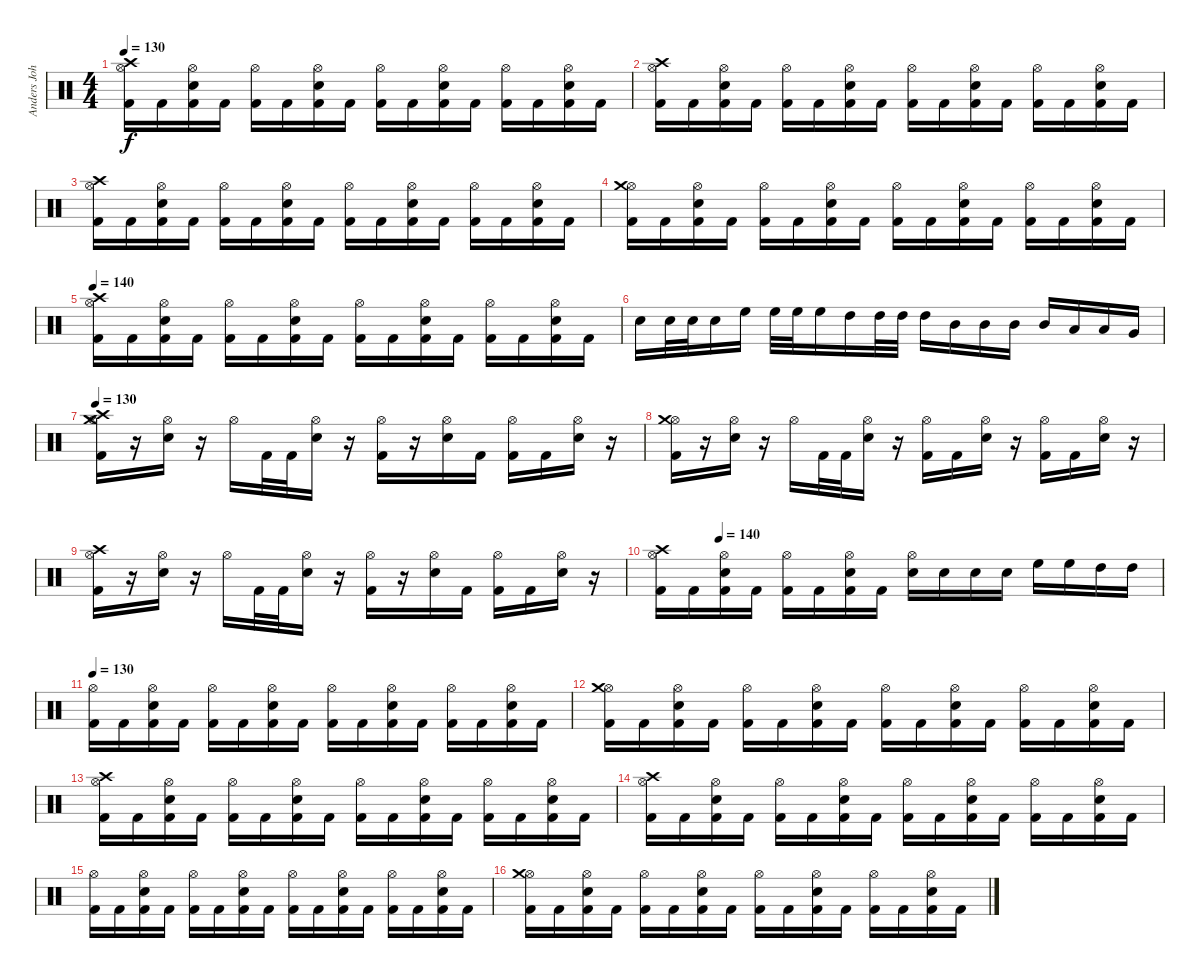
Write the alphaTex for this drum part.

\track ("Anders Johansson - Drums" "Anders Joh") {instrument percussion}
\staff {score}
\articulation defaults
\ts (4 4)
\tempo 130
\clef neutral
\ks c
("Hi-Hat (open)" "Kick (hit) 2" "Crash high (hit)").16{dy f} "Kick (hit) 2".16 ("Hi-Hat (open)" "Kick (hit) 2" "Electric Snare (hit)").16 "Kick (hit) 2".16 ("Hi-Hat (open)" "Kick (hit) 2").16 "Kick (hit) 2".16 ("Hi-Hat (open)" "Kick (hit) 2" "Electric Snare (hit)").16 "Kick (hit) 2".16 ("Hi-Hat (open)" "Kick (hit) 2").16 "Kick (hit) 2".16 ("Hi-Hat (open)" "Kick (hit) 2" "Electric Snare (hit)").16 "Kick (hit) 2".16 ("Hi-Hat (open)" "Kick (hit) 2").16 "Kick (hit) 2".16 ("Hi-Hat (open)" "Kick (hit) 2" "Electric Snare (hit)").16 "Kick (hit) 2".16 |
("Hi-Hat (open)" "Kick (hit) 2" "Crash high (hit)").16 "Kick (hit) 2".16 ("Hi-Hat (open)" "Kick (hit) 2" "Electric Snare (hit)").16 "Kick (hit) 2".16 ("Hi-Hat (open)" "Kick (hit) 2").16 "Kick (hit) 2".16 ("Hi-Hat (open)" "Kick (hit) 2" "Electric Snare (hit)").16 "Kick (hit) 2".16 ("Hi-Hat (open)" "Kick (hit) 2").16 "Kick (hit) 2".16 ("Hi-Hat (open)" "Kick (hit) 2" "Electric Snare (hit)").16 "Kick (hit) 2".16 ("Hi-Hat (open)" "Kick (hit) 2").16 "Kick (hit) 2".16 ("Hi-Hat (open)" "Kick (hit) 2" "Electric Snare (hit)").16 "Kick (hit) 2".16 |
("Hi-Hat (open)" "Kick (hit) 2" "Crash high (hit)").16 "Kick (hit) 2".16 ("Hi-Hat (open)" "Kick (hit) 2" "Electric Snare (hit)").16 "Kick (hit) 2".16 ("Hi-Hat (open)" "Kick (hit) 2").16 "Kick (hit) 2".16 ("Hi-Hat (open)" "Kick (hit) 2" "Electric Snare (hit)").16 "Kick (hit) 2".16 ("Hi-Hat (open)" "Kick (hit) 2").16 "Kick (hit) 2".16 ("Hi-Hat (open)" "Kick (hit) 2" "Electric Snare (hit)").16 "Kick (hit) 2".16 ("Hi-Hat (open)" "Kick (hit) 2").16 "Kick (hit) 2".16 ("Hi-Hat (open)" "Kick (hit) 2" "Electric Snare (hit)").16 "Kick (hit) 2".16 |
("Hi-Hat (open)" "Kick (hit) 2" "Crash medium (hit)").16 "Kick (hit) 2".16 ("Hi-Hat (open)" "Kick (hit) 2" "Electric Snare (hit)").16 "Kick (hit) 2".16 ("Hi-Hat (open)" "Kick (hit) 2").16 "Kick (hit) 2".16 ("Hi-Hat (open)" "Kick (hit) 2" "Electric Snare (hit)").16 "Kick (hit) 2".16 ("Hi-Hat (open)" "Kick (hit) 2").16 "Kick (hit) 2".16 ("Hi-Hat (open)" "Kick (hit) 2" "Electric Snare (hit)").16 "Kick (hit) 2".16 ("Hi-Hat (open)" "Kick (hit) 2").16 "Kick (hit) 2".16 ("Hi-Hat (open)" "Kick (hit) 2" "Electric Snare (hit)").16 "Kick (hit) 2".16 |
\tempo 140
("Hi-Hat (open)" "Kick (hit) 2" "Crash high (hit)").16 "Kick (hit) 2".16 ("Hi-Hat (open)" "Kick (hit) 2" "Electric Snare (hit)").16 "Kick (hit) 2".16 ("Hi-Hat (open)" "Kick (hit) 2").16 "Kick (hit) 2".16 ("Hi-Hat (open)" "Kick (hit) 2" "Electric Snare (hit)").16 "Kick (hit) 2".16 ("Hi-Hat (open)" "Kick (hit) 2").16 "Kick (hit) 2".16 ("Hi-Hat (open)" "Kick (hit) 2" "Electric Snare (hit)").16 "Kick (hit) 2".16 ("Hi-Hat (open)" "Kick (hit) 2").16 "Kick (hit) 2".16 ("Hi-Hat (open)" "Kick (hit) 2" "Electric Snare (hit)").16 "Kick (hit) 2".16 |
"Electric Snare (hit)".16 "Electric Snare (hit)".32 "Electric Snare (hit)".32 "Electric Snare (hit)".16 "High Floor Tom (hit)".16 "High Floor Tom (hit)".32 "High Floor Tom (hit)".32 "High Floor Tom (hit)".16 "High Tom (hit)".16 "High Tom (hit)".32 "High Tom (hit)".32 "High Tom (hit)".16 "Mid Tom (hit)".16 "Mid Tom (hit)".16 "Mid Tom (hit)".16 "Mid Tom (hit)".16 "Low Tom (hit)".16 "Low Tom (hit)".16 "Very Low Tom (hit)".16 |
\tempo 130
("Hi-Hat (open)" "Kick (hit) 2" "Crash medium (hit)" "Crash high (hit)").16 r.16 ("Hi-Hat (open)" "Electric Snare (hit)").16 r.16 "Hi-Hat (open)".16 "Kick (hit) 2".32 "Kick (hit) 2".32 ("Hi-Hat (open)" "Electric Snare (hit)").16 r.16 ("Hi-Hat (open)" "Kick (hit) 2").16 r.16 ("Hi-Hat (open)" "Electric Snare (hit)").16 "Kick (hit) 2".16 ("Hi-Hat (open)" "Kick (hit) 2").16 "Kick (hit) 2".16 ("Hi-Hat (open)" "Electric Snare (hit)").16 r.16 |
("Hi-Hat (open)" "Kick (hit) 2" "Crash medium (hit)").16 r.16 ("Hi-Hat (open)" "Electric Snare (hit)").16 r.16 "Hi-Hat (open)".16 "Kick (hit) 2".32 "Kick (hit) 2".32 ("Hi-Hat (open)" "Electric Snare (hit)").16 r.16 ("Hi-Hat (open)" "Kick (hit) 2").16 "Kick (hit) 2".16 ("Hi-Hat (open)" "Electric Snare (hit)").16 r.16 ("Hi-Hat (open)" "Kick (hit) 2").16 "Kick (hit) 2".16 ("Hi-Hat (open)" "Electric Snare (hit)").16 r.16 |
("Hi-Hat (open)" "Kick (hit) 2" "Crash high (hit)").16 r.16 ("Hi-Hat (open)" "Electric Snare (hit)").16 r.16 "Hi-Hat (open)".16 "Kick (hit) 2".32 "Kick (hit) 2".32 ("Hi-Hat (open)" "Electric Snare (hit)").16 r.16 ("Hi-Hat (open)" "Kick (hit) 2").16 r.16 ("Hi-Hat (open)" "Electric Snare (hit)").16 "Kick (hit) 2".16 ("Hi-Hat (open)" "Kick (hit) 2").16 "Kick (hit) 2".16 ("Hi-Hat (open)" "Electric Snare (hit)").16 r.16 |
\tempo (140 0.125)
("Hi-Hat (open)" "Kick (hit) 2" "Crash high (hit)").16 "Kick (hit) 2".16 ("Hi-Hat (open)" "Kick (hit) 2" "Electric Snare (hit)").16 "Kick (hit) 2".16 ("Hi-Hat (open)" "Kick (hit) 2").16 "Kick (hit) 2".16 ("Hi-Hat (open)" "Kick (hit) 2" "Electric Snare (hit)").16 "Kick (hit) 2".16 ("Hi-Hat (open)" "Electric Snare (hit)").16 "Electric Snare (hit)".16 "Electric Snare (hit)".16 "Electric Snare (hit)".16 "High Floor Tom (hit)".16 "High Floor Tom (hit)".16 "High Tom (hit)".16 "High Tom (hit)".16 |
\tempo 130
("Hi-Hat (open)" "Kick (hit) 2").16 "Kick (hit) 2".16 ("Hi-Hat (open)" "Kick (hit) 2" "Electric Snare (hit)").16 "Kick (hit) 2".16 ("Hi-Hat (open)" "Kick (hit) 2").16 "Kick (hit) 2".16 ("Hi-Hat (open)" "Kick (hit) 2" "Electric Snare (hit)").16 "Kick (hit) 2".16 ("Hi-Hat (open)" "Kick (hit) 2").16 "Kick (hit) 2".16 ("Hi-Hat (open)" "Kick (hit) 2" "Electric Snare (hit)").16 "Kick (hit) 2".16 ("Hi-Hat (open)" "Kick (hit) 2").16 "Kick (hit) 2".16 ("Hi-Hat (open)" "Kick (hit) 2" "Electric Snare (hit)").16 "Kick (hit) 2".16 |
("Hi-Hat (open)" "Kick (hit) 2" "Crash medium (hit)").16 "Kick (hit) 2".16 ("Hi-Hat (open)" "Kick (hit) 2" "Electric Snare (hit)").16 "Kick (hit) 2".16 ("Hi-Hat (open)" "Kick (hit) 2").16 "Kick (hit) 2".16 ("Hi-Hat (open)" "Kick (hit) 2" "Electric Snare (hit)").16 "Kick (hit) 2".16 ("Hi-Hat (open)" "Kick (hit) 2").16 "Kick (hit) 2".16 ("Hi-Hat (open)" "Kick (hit) 2" "Electric Snare (hit)").16 "Kick (hit) 2".16 ("Hi-Hat (open)" "Kick (hit) 2").16 "Kick (hit) 2".16 ("Hi-Hat (open)" "Kick (hit) 2" "Electric Snare (hit)").16 "Kick (hit) 2".16 |
("Hi-Hat (open)" "Kick (hit) 2" "Crash high (hit)").16 "Kick (hit) 2".16 ("Hi-Hat (open)" "Kick (hit) 2" "Electric Snare (hit)").16 "Kick (hit) 2".16 ("Hi-Hat (open)" "Kick (hit) 2").16 "Kick (hit) 2".16 ("Hi-Hat (open)" "Kick (hit) 2" "Electric Snare (hit)").16 "Kick (hit) 2".16 ("Hi-Hat (open)" "Kick (hit) 2").16 "Kick (hit) 2".16 ("Hi-Hat (open)" "Kick (hit) 2" "Electric Snare (hit)").16 "Kick (hit) 2".16 ("Hi-Hat (open)" "Kick (hit) 2").16 "Kick (hit) 2".16 ("Hi-Hat (open)" "Kick (hit) 2" "Electric Snare (hit)").16 "Kick (hit) 2".16 |
("Hi-Hat (open)" "Kick (hit) 2" "Crash high (hit)").16 "Kick (hit) 2".16 ("Hi-Hat (open)" "Kick (hit) 2" "Electric Snare (hit)").16 "Kick (hit) 2".16 ("Hi-Hat (open)" "Kick (hit) 2").16 "Kick (hit) 2".16 ("Hi-Hat (open)" "Kick (hit) 2" "Electric Snare (hit)").16 "Kick (hit) 2".16 ("Hi-Hat (open)" "Kick (hit) 2").16 "Kick (hit) 2".16 ("Hi-Hat (open)" "Kick (hit) 2" "Electric Snare (hit)").16 "Kick (hit) 2".16 ("Hi-Hat (open)" "Kick (hit) 2").16 "Kick (hit) 2".16 ("Hi-Hat (open)" "Kick (hit) 2" "Electric Snare (hit)").16 "Kick (hit) 2".16 |
("Hi-Hat (open)" "Kick (hit) 2").16 "Kick (hit) 2".16 ("Hi-Hat (open)" "Kick (hit) 2" "Electric Snare (hit)").16 "Kick (hit) 2".16 ("Hi-Hat (open)" "Kick (hit) 2").16 "Kick (hit) 2".16 ("Hi-Hat (open)" "Kick (hit) 2" "Electric Snare (hit)").16 "Kick (hit) 2".16 ("Hi-Hat (open)" "Kick (hit) 2").16 "Kick (hit) 2".16 ("Hi-Hat (open)" "Kick (hit) 2" "Electric Snare (hit)").16 "Kick (hit) 2".16 ("Hi-Hat (open)" "Kick (hit) 2").16 "Kick (hit) 2".16 ("Hi-Hat (open)" "Kick (hit) 2" "Electric Snare (hit)").16 "Kick (hit) 2".16 |
("Hi-Hat (open)" "Kick (hit) 2" "Crash medium (hit)").16 "Kick (hit) 2".16 ("Hi-Hat (open)" "Kick (hit) 2" "Electric Snare (hit)").16 "Kick (hit) 2".16 ("Hi-Hat (open)" "Kick (hit) 2").16 "Kick (hit) 2".16 ("Hi-Hat (open)" "Kick (hit) 2" "Electric Snare (hit)").16 "Kick (hit) 2".16 ("Hi-Hat (open)" "Kick (hit) 2").16 "Kick (hit) 2".16 ("Hi-Hat (open)" "Kick (hit) 2" "Electric Snare (hit)").16 "Kick (hit) 2".16 ("Hi-Hat (open)" "Kick (hit) 2").16 "Kick (hit) 2".16 ("Hi-Hat (open)" "Kick (hit) 2" "Electric Snare (hit)").16 "Kick (hit) 2".16
